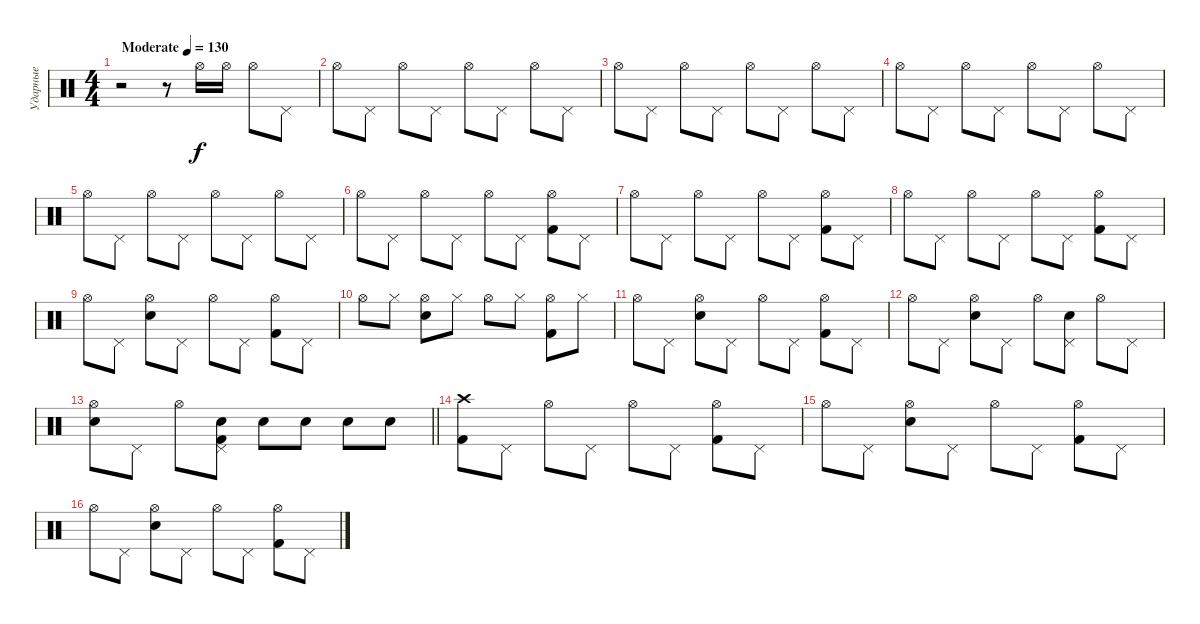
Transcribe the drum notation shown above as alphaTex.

\track ("Ударные" "Ударные") {instrument percussion}
\staff
\articulation defaults
\ts (4 4)
\tempo (130 "Moderate")
\clef neutral
\ks c
r.2{dy f} r.8 "Hi-Hat (open)".16 "Hi-Hat (open)".16 "Hi-Hat (open)".8 "Pedal Hi-Hat (hit)".8 |
"Hi-Hat (open)".8 "Pedal Hi-Hat (hit)".8 "Hi-Hat (open)".8 "Pedal Hi-Hat (hit)".8 "Hi-Hat (open)".8 "Pedal Hi-Hat (hit)".8 "Hi-Hat (open)".8 "Pedal Hi-Hat (hit)".8 |
"Hi-Hat (open)".8 "Pedal Hi-Hat (hit)".8 "Hi-Hat (open)".8 "Pedal Hi-Hat (hit)".8 "Hi-Hat (open)".8 "Pedal Hi-Hat (hit)".8 "Hi-Hat (open)".8 "Pedal Hi-Hat (hit)".8 |
"Hi-Hat (open)".8 "Pedal Hi-Hat (hit)".8 "Hi-Hat (open)".8 "Pedal Hi-Hat (hit)".8 "Hi-Hat (open)".8 "Pedal Hi-Hat (hit)".8 "Hi-Hat (open)".8 "Pedal Hi-Hat (hit)".8 |
"Hi-Hat (open)".8 "Pedal Hi-Hat (hit)".8 "Hi-Hat (open)".8 "Pedal Hi-Hat (hit)".8 "Hi-Hat (open)".8 "Pedal Hi-Hat (hit)".8 "Hi-Hat (open)".8 "Pedal Hi-Hat (hit)".8 |
"Hi-Hat (open)".8 "Pedal Hi-Hat (hit)".8 "Hi-Hat (open)".8 "Pedal Hi-Hat (hit)".8 "Hi-Hat (open)".8 "Pedal Hi-Hat (hit)".8 ("Kick (hit) 2" "Hi-Hat (open)").8 "Pedal Hi-Hat (hit)".8 |
"Hi-Hat (open)".8 "Pedal Hi-Hat (hit)".8 "Hi-Hat (open)".8 "Pedal Hi-Hat (hit)".8 "Hi-Hat (open)".8 "Pedal Hi-Hat (hit)".8 ("Kick (hit) 2" "Hi-Hat (open)").8 "Pedal Hi-Hat (hit)".8 |
"Hi-Hat (open)".8 "Pedal Hi-Hat (hit)".8 "Hi-Hat (open)".8 "Pedal Hi-Hat (hit)".8 "Hi-Hat (open)".8 "Pedal Hi-Hat (hit)".8 ("Kick (hit) 2" "Hi-Hat (open)").8 "Pedal Hi-Hat (hit)".8 |
"Hi-Hat (open)".8 "Pedal Hi-Hat (hit)".8 ("Snare (hit) 2" "Hi-Hat (open)").8 "Pedal Hi-Hat (hit)".8 "Hi-Hat (open)".8 "Pedal Hi-Hat (hit)".8 ("Kick (hit) 2" "Hi-Hat (open)").8 "Pedal Hi-Hat (hit)".8 |
"Hi-Hat (open)".8 "Hi-Hat (closed)".8 ("Snare (hit) 2" "Hi-Hat (open)").8 "Hi-Hat (closed)".8 "Hi-Hat (open)".8 "Hi-Hat (closed)".8 ("Kick (hit) 2" "Hi-Hat (open)").8 "Hi-Hat (closed)".8 |
"Hi-Hat (open)".8 "Pedal Hi-Hat (hit)".8 ("Snare (hit) 2" "Hi-Hat (open)").8 "Pedal Hi-Hat (hit)".8 "Hi-Hat (open)".8 "Pedal Hi-Hat (hit)".8 ("Kick (hit) 2" "Hi-Hat (open)").8 "Pedal Hi-Hat (hit)".8 |
"Hi-Hat (open)".8 "Pedal Hi-Hat (hit)".8 ("Snare (hit) 2" "Hi-Hat (open)").8 "Pedal Hi-Hat (hit)".8 "Hi-Hat (open)".8 ("Snare (hit) 2" "Pedal Hi-Hat (hit)").8 "Hi-Hat (open)".8 "Pedal Hi-Hat (hit)".8 |
\barLineRight lightlight
("Snare (hit) 2" "Hi-Hat (open)").8 "Pedal Hi-Hat (hit)".8 "Hi-Hat (open)".8 ("Kick (hit) 2" "Snare (hit) 2" "Pedal Hi-Hat (hit)").8 "Snare (hit) 2".8 "Snare (hit) 2".8 "Snare (hit) 2".8 "Snare (hit) 2".8 |
("Kick (hit) 2" "Crash high (hit)").8 "Pedal Hi-Hat (hit)".8 "Hi-Hat (open)".8 "Pedal Hi-Hat (hit)".8 "Hi-Hat (open)".8 "Pedal Hi-Hat (hit)".8 ("Kick (hit) 2" "Hi-Hat (open)").8 "Pedal Hi-Hat (hit)".8 |
"Hi-Hat (open)".8 "Pedal Hi-Hat (hit)".8 ("Snare (hit) 2" "Hi-Hat (open)").8 "Pedal Hi-Hat (hit)".8 "Hi-Hat (open)".8 "Pedal Hi-Hat (hit)".8 ("Kick (hit) 2" "Hi-Hat (open)").8 "Pedal Hi-Hat (hit)".8 |
"Hi-Hat (open)".8 "Pedal Hi-Hat (hit)".8 ("Snare (hit) 2" "Hi-Hat (open)").8 "Pedal Hi-Hat (hit)".8 "Hi-Hat (open)".8 "Pedal Hi-Hat (hit)".8 ("Kick (hit) 2" "Hi-Hat (open)").8 "Pedal Hi-Hat (hit)".8
